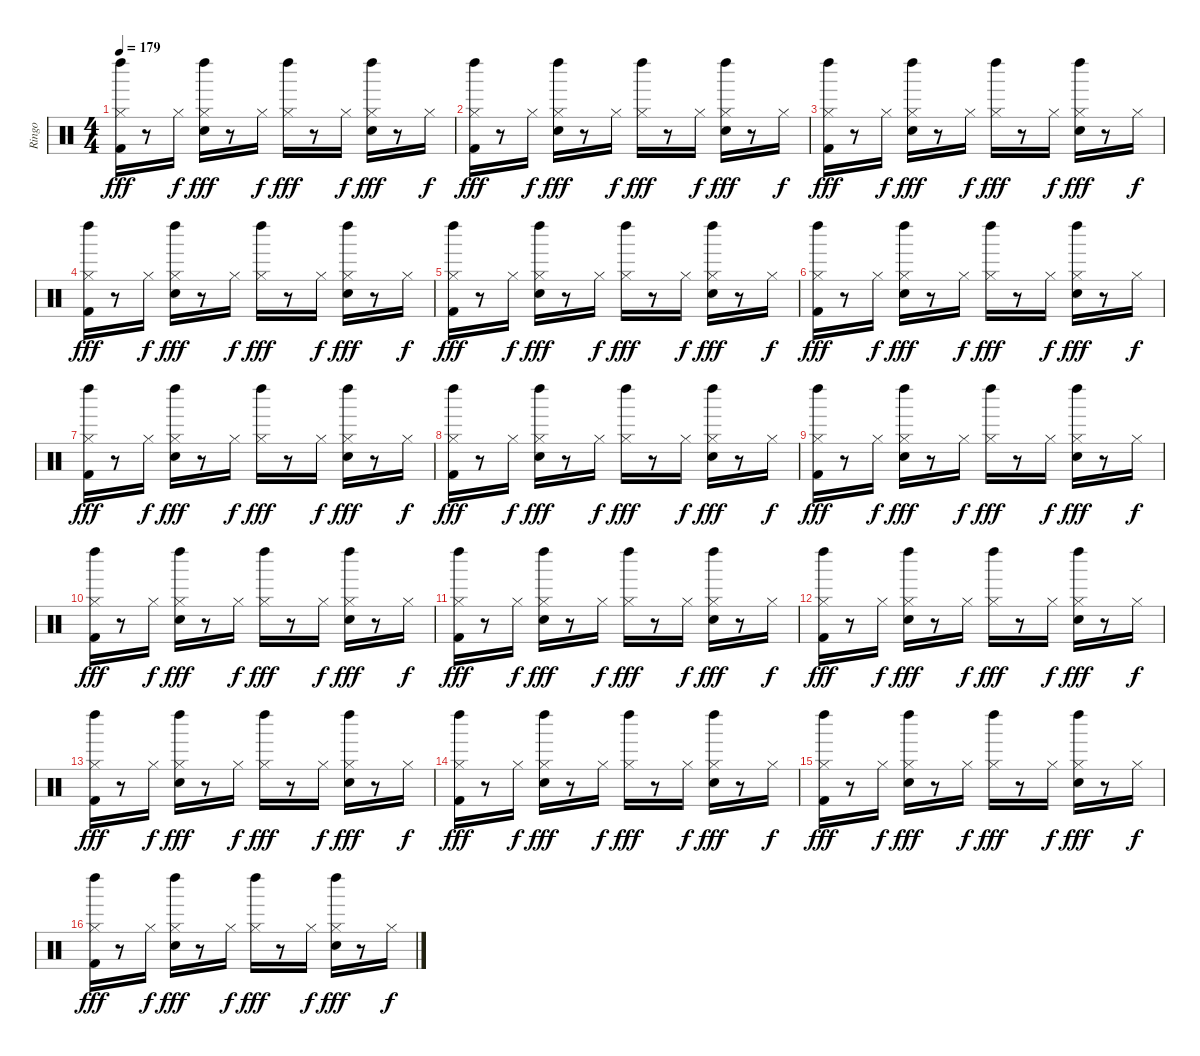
\track ("Ringo" "Ringo") {instrument percussion}
\staff {score}
\articulation defaults
\ts (4 4)
\tempo 179
\clef neutral
\ks c
("Hi-Hat (closed)" "Kick (hit) 2" "Left Maraca (hit)").16{dy fff} r.8 "Hi-Hat (closed)".16{dy f} ("Hi-Hat (closed)" "Snare (hit) 2" "Left Maraca (hit)").16{dy fff} r.8 "Hi-Hat (closed)".16{dy f} ("Hi-Hat (closed)" "Left Maraca (hit)").16{dy fff} r.8 "Hi-Hat (closed)".16{dy f} ("Hi-Hat (closed)" "Snare (hit) 2" "Left Maraca (hit)").16{dy fff} r.8 "Hi-Hat (closed)".16{dy f} |
("Hi-Hat (closed)" "Kick (hit) 2" "Left Maraca (hit)").16{dy fff} r.8 "Hi-Hat (closed)".16{dy f} ("Hi-Hat (closed)" "Snare (hit) 2" "Left Maraca (hit)").16{dy fff} r.8 "Hi-Hat (closed)".16{dy f} ("Hi-Hat (closed)" "Left Maraca (hit)").16{dy fff} r.8 "Hi-Hat (closed)".16{dy f} ("Hi-Hat (closed)" "Snare (hit) 2" "Left Maraca (hit)").16{dy fff} r.8 "Hi-Hat (closed)".16{dy f} |
("Hi-Hat (closed)" "Kick (hit) 2" "Left Maraca (hit)").16{dy fff} r.8 "Hi-Hat (closed)".16{dy f} ("Hi-Hat (closed)" "Snare (hit) 2" "Left Maraca (hit)").16{dy fff} r.8 "Hi-Hat (closed)".16{dy f} ("Hi-Hat (closed)" "Left Maraca (hit)").16{dy fff} r.8 "Hi-Hat (closed)".16{dy f} ("Hi-Hat (closed)" "Snare (hit) 2" "Left Maraca (hit)").16{dy fff} r.8 "Hi-Hat (closed)".16{dy f} |
("Hi-Hat (closed)" "Kick (hit) 2" "Left Maraca (hit)").16{dy fff} r.8 "Hi-Hat (closed)".16{dy f} ("Hi-Hat (closed)" "Snare (hit) 2" "Left Maraca (hit)").16{dy fff} r.8 "Hi-Hat (closed)".16{dy f} ("Hi-Hat (closed)" "Left Maraca (hit)").16{dy fff} r.8 "Hi-Hat (closed)".16{dy f} ("Hi-Hat (closed)" "Snare (hit) 2" "Left Maraca (hit)").16{dy fff} r.8 "Hi-Hat (closed)".16{dy f} |
("Hi-Hat (closed)" "Kick (hit) 2" "Left Maraca (hit)").16{dy fff} r.8 "Hi-Hat (closed)".16{dy f} ("Hi-Hat (closed)" "Snare (hit) 2" "Left Maraca (hit)").16{dy fff} r.8 "Hi-Hat (closed)".16{dy f} ("Hi-Hat (closed)" "Left Maraca (hit)").16{dy fff} r.8 "Hi-Hat (closed)".16{dy f} ("Hi-Hat (closed)" "Snare (hit) 2" "Left Maraca (hit)").16{dy fff} r.8 "Hi-Hat (closed)".16{dy f} |
("Hi-Hat (closed)" "Kick (hit) 2" "Left Maraca (hit)").16{dy fff} r.8 "Hi-Hat (closed)".16{dy f} ("Hi-Hat (closed)" "Snare (hit) 2" "Left Maraca (hit)").16{dy fff} r.8 "Hi-Hat (closed)".16{dy f} ("Hi-Hat (closed)" "Left Maraca (hit)").16{dy fff} r.8 "Hi-Hat (closed)".16{dy f} ("Hi-Hat (closed)" "Snare (hit) 2" "Left Maraca (hit)").16{dy fff} r.8 "Hi-Hat (closed)".16{dy f} |
("Hi-Hat (closed)" "Kick (hit) 2" "Left Maraca (hit)").16{dy fff} r.8 "Hi-Hat (closed)".16{dy f} ("Hi-Hat (closed)" "Snare (hit) 2" "Left Maraca (hit)").16{dy fff} r.8 "Hi-Hat (closed)".16{dy f} ("Hi-Hat (closed)" "Left Maraca (hit)").16{dy fff} r.8 "Hi-Hat (closed)".16{dy f} ("Hi-Hat (closed)" "Snare (hit) 2" "Left Maraca (hit)").16{dy fff} r.8 "Hi-Hat (closed)".16{dy f} |
("Hi-Hat (closed)" "Kick (hit) 2" "Left Maraca (hit)").16{dy fff} r.8 "Hi-Hat (closed)".16{dy f} ("Hi-Hat (closed)" "Snare (hit) 2" "Left Maraca (hit)").16{dy fff} r.8 "Hi-Hat (closed)".16{dy f} ("Hi-Hat (closed)" "Left Maraca (hit)").16{dy fff} r.8 "Hi-Hat (closed)".16{dy f} ("Hi-Hat (closed)" "Snare (hit) 2" "Left Maraca (hit)").16{dy fff} r.8 "Hi-Hat (closed)".16{dy f} |
("Hi-Hat (closed)" "Kick (hit) 2" "Left Maraca (hit)").16{dy fff} r.8 "Hi-Hat (closed)".16{dy f} ("Hi-Hat (closed)" "Snare (hit) 2" "Left Maraca (hit)").16{dy fff} r.8 "Hi-Hat (closed)".16{dy f} ("Hi-Hat (closed)" "Left Maraca (hit)").16{dy fff} r.8 "Hi-Hat (closed)".16{dy f} ("Hi-Hat (closed)" "Snare (hit) 2" "Left Maraca (hit)").16{dy fff} r.8 "Hi-Hat (closed)".16{dy f} |
("Hi-Hat (closed)" "Kick (hit) 2" "Left Maraca (hit)").16{dy fff} r.8 "Hi-Hat (closed)".16{dy f} ("Hi-Hat (closed)" "Snare (hit) 2" "Left Maraca (hit)").16{dy fff} r.8 "Hi-Hat (closed)".16{dy f} ("Hi-Hat (closed)" "Left Maraca (hit)").16{dy fff} r.8 "Hi-Hat (closed)".16{dy f} ("Hi-Hat (closed)" "Snare (hit) 2" "Left Maraca (hit)").16{dy fff} r.8 "Hi-Hat (closed)".16{dy f} |
("Hi-Hat (closed)" "Kick (hit) 2" "Left Maraca (hit)").16{dy fff} r.8 "Hi-Hat (closed)".16{dy f} ("Hi-Hat (closed)" "Snare (hit) 2" "Left Maraca (hit)").16{dy fff} r.8 "Hi-Hat (closed)".16{dy f} ("Hi-Hat (closed)" "Left Maraca (hit)").16{dy fff} r.8 "Hi-Hat (closed)".16{dy f} ("Hi-Hat (closed)" "Snare (hit) 2" "Left Maraca (hit)").16{dy fff} r.8 "Hi-Hat (closed)".16{dy f} |
("Hi-Hat (closed)" "Kick (hit) 2" "Left Maraca (hit)").16{dy fff} r.8 "Hi-Hat (closed)".16{dy f} ("Hi-Hat (closed)" "Snare (hit) 2" "Left Maraca (hit)").16{dy fff} r.8 "Hi-Hat (closed)".16{dy f} ("Hi-Hat (closed)" "Left Maraca (hit)").16{dy fff} r.8 "Hi-Hat (closed)".16{dy f} ("Hi-Hat (closed)" "Snare (hit) 2" "Left Maraca (hit)").16{dy fff} r.8 "Hi-Hat (closed)".16{dy f} |
("Hi-Hat (closed)" "Kick (hit) 2" "Left Maraca (hit)").16{dy fff} r.8 "Hi-Hat (closed)".16{dy f} ("Hi-Hat (closed)" "Snare (hit) 2" "Left Maraca (hit)").16{dy fff} r.8 "Hi-Hat (closed)".16{dy f} ("Hi-Hat (closed)" "Left Maraca (hit)").16{dy fff} r.8 "Hi-Hat (closed)".16{dy f} ("Hi-Hat (closed)" "Snare (hit) 2" "Left Maraca (hit)").16{dy fff} r.8 "Hi-Hat (closed)".16{dy f} |
("Hi-Hat (closed)" "Kick (hit) 2" "Left Maraca (hit)").16{dy fff} r.8 "Hi-Hat (closed)".16{dy f} ("Hi-Hat (closed)" "Snare (hit) 2" "Left Maraca (hit)").16{dy fff} r.8 "Hi-Hat (closed)".16{dy f} ("Hi-Hat (closed)" "Left Maraca (hit)").16{dy fff} r.8 "Hi-Hat (closed)".16{dy f} ("Hi-Hat (closed)" "Snare (hit) 2" "Left Maraca (hit)").16{dy fff} r.8 "Hi-Hat (closed)".16{dy f} |
("Hi-Hat (closed)" "Kick (hit) 2" "Left Maraca (hit)").16{dy fff} r.8 "Hi-Hat (closed)".16{dy f} ("Hi-Hat (closed)" "Snare (hit) 2" "Left Maraca (hit)").16{dy fff} r.8 "Hi-Hat (closed)".16{dy f} ("Hi-Hat (closed)" "Left Maraca (hit)").16{dy fff} r.8 "Hi-Hat (closed)".16{dy f} ("Hi-Hat (closed)" "Snare (hit) 2" "Left Maraca (hit)").16{dy fff} r.8 "Hi-Hat (closed)".16{dy f} |
("Hi-Hat (closed)" "Kick (hit) 2" "Left Maraca (hit)").16{dy fff} r.8 "Hi-Hat (closed)".16{dy f} ("Hi-Hat (closed)" "Snare (hit) 2" "Left Maraca (hit)").16{dy fff} r.8 "Hi-Hat (closed)".16{dy f} ("Hi-Hat (closed)" "Left Maraca (hit)").16{dy fff} r.8 "Hi-Hat (closed)".16{dy f} ("Hi-Hat (closed)" "Snare (hit) 2" "Left Maraca (hit)").16{dy fff} r.8 "Hi-Hat (closed)".16{dy f}
